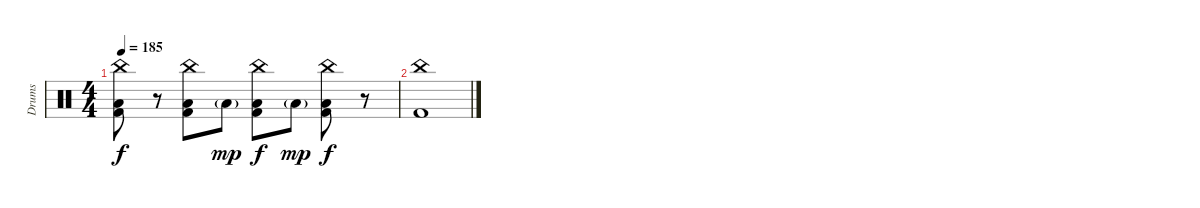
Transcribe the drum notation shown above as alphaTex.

\track ("Drums" "Drums") {instrument percussion}
\staff {score}
\articulation defaults
\ts (4 4)
\tempo 185
\clef neutral
\ks c
("China (hit)" "Low Tom (hit)" "Kick (hit) 2").8{dy f} r.8 ("China (hit)" "Low Tom (hit)" "Kick (hit) 2").8 "Low Tom (hit)"{g}.8{dy mp} ("China (hit)" "Low Tom (hit)" "Kick (hit) 2").8{dy f} "Low Tom (hit)"{g}.8{dy mp} ("China (hit)" "Low Tom (hit)" "Kick (hit) 2").8{dy f} r.8 |
("China (hit)" "Kick (hit) 2").1
